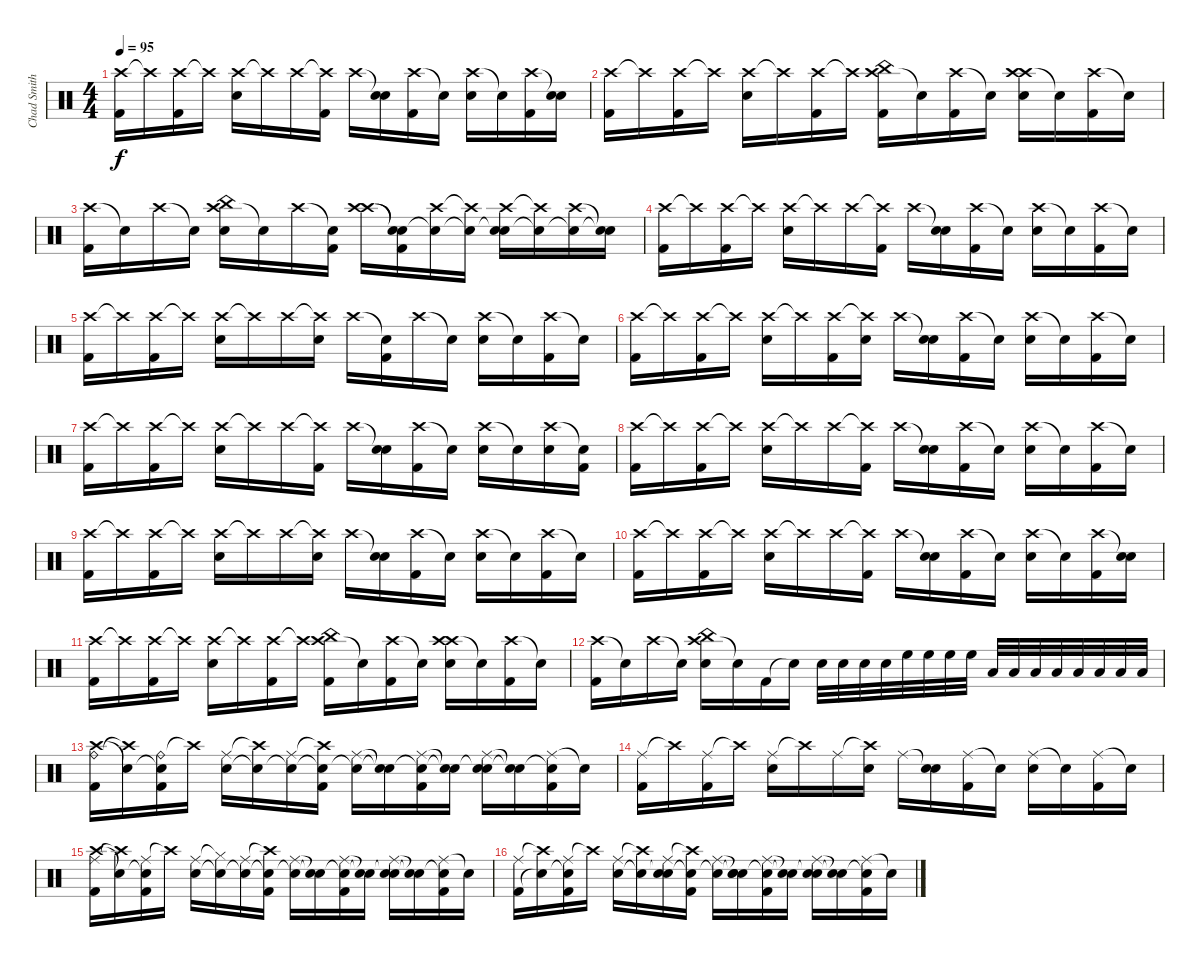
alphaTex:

\track ("Chad Smith" "Chad Smith") {instrument percussion}
\staff {score}
\articulation defaults
\ts (4 4)
\tempo 95
\clef neutral
\ks c
("Crash high (hit)" "Kick (hit) 2").16{dy f} "Crash high (hit)"{t}.16 ("Crash high (hit)" "Kick (hit) 2").16 "Crash high (hit)"{t}.16 ("Crash high (hit)" "Snare (hit) 2").16 "Crash high (hit)"{t}.16 "Crash high (hit)".16 ("Crash high (hit)"{t} "Kick (hit) 2").16 "Crash high (hit)".16 ("Snare (hit)"{t} "Snare (hit) 2").16 ("Crash high (hit)" "Kick (hit) 2").16 "Snare (hit)"{t}.16 ("Crash high (hit)" "Snare (hit) 2").16 "Snare (hit)"{t}.16 ("Crash high (hit)" "Kick (hit) 2").16 ("Snare (hit)"{t} "Snare (hit) 2").16 |
("Crash high (hit)" "Kick (hit) 2").16 "Crash high (hit)"{t}.16 ("Crash high (hit)" "Kick (hit) 2").16 "Crash high (hit)"{t}.16 ("Crash high (hit)" "Snare (hit) 2").16 "Crash high (hit)"{t}.16 ("Crash high (hit)" "Kick (hit) 2").16 "Crash high (hit)"{t}.16 ("Crash high (hit)" "China (hit)" "Kick (hit) 2").16 "Snare (hit)"{t}.16 ("Crash high (hit)" "Kick (hit) 2").16 "Snare (hit)"{t}.16 ("Crash high (hit)" "Crash high (hit)" "Snare (hit) 2").16 "Snare (hit)"{t}.16 ("Crash high (hit)" "Kick (hit) 2").16 "Snare (hit)"{t}.16 |
("Crash high (hit)" "Kick (hit) 2").16 "Snare (hit)"{t}.16 "Crash high (hit)".16 "Snare (hit)"{t}.16 ("Crash high (hit)" "China (hit)" "Snare (hit) 2").16 "Snare (hit)"{t}.16 "Crash high (hit)".16 ("Snare (hit)"{t} "Kick (hit) 2").16 ("Crash high (hit)" "Crash high (hit)").16 ("Snare (hit)"{t} "Snare (hit)"{t} "Kick (hit) 2").16 ("Crash high (hit)" "Snare (hit)"{t}).16 ("Crash high (hit)"{t} "Snare (hit)"{t}).16 ("Crash high (hit)" "Snare (hit)"{t} "Snare (hit) 2").16 ("Crash high (hit)"{t} "Snare (hit)"{t}).16 ("Crash high (hit)" "Snare (hit)"{t}).16 ("Snare (hit)"{t} "Snare (hit)"{t}).16 |
("Crash high (hit)" "Kick (hit) 2").16 "Crash high (hit)"{t}.16 ("Crash high (hit)" "Kick (hit) 2").16 "Crash high (hit)"{t}.16 ("Crash high (hit)" "Snare (hit) 2").16 "Crash high (hit)"{t}.16 "Crash high (hit)".16 ("Crash high (hit)"{t} "Kick (hit) 2").16 "Crash high (hit)".16 ("Snare (hit)"{t} "Snare (hit) 2").16 ("Crash high (hit)" "Kick (hit) 2").16 "Snare (hit)"{t}.16 ("Crash high (hit)" "Snare (hit) 2").16 "Snare (hit)"{t}.16 ("Crash high (hit)" "Kick (hit) 2").16 "Snare (hit)"{t}.16 |
("Crash high (hit)" "Kick (hit) 2").16 "Crash high (hit)"{t}.16 ("Crash high (hit)" "Kick (hit) 2").16 "Crash high (hit)"{t}.16 ("Crash high (hit)" "Snare (hit) 2").16 "Crash high (hit)"{t}.16 "Crash high (hit)".16 ("Crash high (hit)"{t} "Snare (hit) 2").16 "Crash high (hit)".16 ("Snare (hit)"{t} "Kick (hit) 2").16 "Crash high (hit)".16 "Snare (hit)"{t}.16 ("Crash high (hit)" "Snare (hit) 2").16 "Snare (hit)"{t}.16 ("Crash high (hit)" "Kick (hit) 2").16 "Snare (hit)"{t}.16 |
("Crash high (hit)" "Kick (hit) 2").16 "Crash high (hit)"{t}.16 ("Crash high (hit)" "Kick (hit) 2").16 "Crash high (hit)"{t}.16 ("Crash high (hit)" "Snare (hit) 2").16 "Crash high (hit)"{t}.16 ("Crash high (hit)" "Kick (hit) 2").16 ("Crash high (hit)"{t} "Snare (hit) 2").16 "Crash high (hit)".16 ("Snare (hit)"{t} "Snare (hit) 2").16 ("Crash high (hit)" "Kick (hit) 2").16 "Snare (hit)"{t}.16 ("Crash high (hit)" "Snare (hit) 2").16 "Snare (hit)"{t}.16 ("Crash high (hit)" "Kick (hit) 2").16 "Snare (hit)"{t}.16 |
("Crash high (hit)" "Kick (hit) 2").16 "Crash high (hit)"{t}.16 ("Crash high (hit)" "Kick (hit) 2").16 "Crash high (hit)"{t}.16 ("Crash high (hit)" "Snare (hit) 2").16 "Crash high (hit)"{t}.16 "Crash high (hit)".16 ("Crash high (hit)"{t} "Kick (hit) 2").16 "Crash high (hit)".16 ("Snare (hit)"{t} "Snare (hit) 2").16 ("Crash high (hit)" "Kick (hit) 2").16 "Snare (hit)"{t}.16 ("Crash high (hit)" "Snare (hit) 2").16 "Snare (hit)"{t}.16 ("Crash high (hit)" "Snare (hit) 2").16 ("Snare (hit)"{t} "Kick (hit) 2").16 |
("Crash high (hit)" "Kick (hit) 2").16 "Crash high (hit)"{t}.16 ("Crash high (hit)" "Kick (hit) 2").16 "Crash high (hit)"{t}.16 ("Crash high (hit)" "Snare (hit) 2").16 "Crash high (hit)"{t}.16 "Crash high (hit)".16 ("Crash high (hit)"{t} "Kick (hit) 2").16 "Crash high (hit)".16 ("Snare (hit)"{t} "Snare (hit) 2").16 ("Crash high (hit)" "Kick (hit) 2").16 "Snare (hit)"{t}.16 ("Crash high (hit)" "Snare (hit) 2").16 "Snare (hit)"{t}.16 ("Crash high (hit)" "Kick (hit) 2").16 "Snare (hit)"{t}.16 |
("Crash high (hit)" "Kick (hit) 2").16 "Crash high (hit)"{t}.16 ("Crash high (hit)" "Kick (hit) 2").16 "Crash high (hit)"{t}.16 ("Crash high (hit)" "Snare (hit) 2").16 "Crash high (hit)"{t}.16 "Crash high (hit)".16 ("Crash high (hit)"{t} "Snare (hit) 2").16 "Crash high (hit)".16 ("Snare (hit)"{t} "Snare (hit) 2").16 ("Crash high (hit)" "Kick (hit) 2").16 "Snare (hit)"{t}.16 ("Crash high (hit)" "Snare (hit) 2").16 "Snare (hit)"{t}.16 ("Crash high (hit)" "Kick (hit) 2").16 "Snare (hit)"{t}.16 |
("Crash high (hit)" "Kick (hit) 2").16 "Crash high (hit)"{t}.16 ("Crash high (hit)" "Kick (hit) 2").16 "Crash high (hit)"{t}.16 ("Crash high (hit)" "Snare (hit) 2").16 "Crash high (hit)"{t}.16 "Crash high (hit)".16 ("Crash high (hit)"{t} "Kick (hit) 2").16 "Crash high (hit)".16 ("Snare (hit)"{t} "Snare (hit) 2").16 ("Crash high (hit)" "Kick (hit) 2").16 "Snare (hit)"{t}.16 ("Crash high (hit)" "Snare (hit) 2").16 "Snare (hit)"{t}.16 ("Crash high (hit)" "Kick (hit) 2").16 ("Snare (hit)"{t} "Snare (hit) 2").16 |
("Crash high (hit)" "Kick (hit) 2").16 "Crash high (hit)"{t}.16 ("Crash high (hit)" "Kick (hit) 2").16 "Crash high (hit)"{t}.16 ("Crash high (hit)" "Snare (hit) 2").16 "Crash high (hit)"{t}.16 ("Crash high (hit)" "Kick (hit) 2").16 "Crash high (hit)"{t}.16 ("Crash high (hit)" "China (hit)" "Kick (hit) 2").16 "Snare (hit)"{t}.16 ("Crash high (hit)" "Kick (hit) 2").16 "Snare (hit)"{t}.16 ("Crash high (hit)" "Crash high (hit)" "Snare (hit) 2").16 "Snare (hit)"{t}.16 ("Crash high (hit)" "Kick (hit) 2").16 "Snare (hit)"{t}.16 |
("Crash high (hit)" "Kick (hit) 2").16 "Snare (hit)"{t}.16 "Crash high (hit)".16 "Snare (hit)"{t}.16 ("Crash high (hit)" "China (hit)" "Snare (hit) 2").16 "Snare (hit)"{t}.16 "Kick (hit) 2".16 "Snare (hit)"{t}.16 "Snare (hit) 2".32 "Snare (hit) 2".32 "Snare (hit) 2".32 "Snare (hit) 2".32 "High Floor Tom (hit)".32 "High Floor Tom (hit)".32 "High Floor Tom (hit)".32 "High Floor Tom (hit)".32 "Low Tom (hit)".32 "Low Tom (hit)".32 "Low Tom (hit)".32 "Low Tom (hit)".32 "Low Floor Tom (hit)".32 "Low Floor Tom (hit)".32 "Low Floor Tom (hit)".32 "Low Floor Tom (hit)".32 |
("Ride (bell)" "Crash high (hit)" "Kick (hit) 2").16 ("Crash high (hit)"{t} "Snare (hit)"{t}).16 ("Ride (bell)" "Snare (hit)"{t} "Kick (hit) 2").16 "Crash high (hit)"{t}.16 ("Ride (middle)" "Snare (hit) 2").16 ("Crash high (hit)"{t} "Snare (hit)"{t}).16 ("Ride (middle)" "Snare (hit)"{t}).16 ("Crash high (hit)"{t} "Snare (hit)"{t} "Kick (hit) 2").16 ("Ride (middle)" "Snare (hit)"{t}).16 ("Snare (hit)"{t} "Snare (hit)"{t}).16 ("Ride (middle)" "Snare (hit)"{t} "Kick (hit) 2").16 ("Snare (hit)"{t} "Snare (hit)"{t}).16 ("Ride (middle)" "Snare (hit)"{t} "Snare (hit) 2").16 ("Snare (hit)"{t} "Snare (hit)"{t}).16 ("Ride (middle)" "Snare (hit)"{t} "Kick (hit) 2").16 "Snare (hit)"{t}.16 |
("Ride (middle)" "Kick (hit) 2").16 "Crash high (hit)"{t}.16 ("Ride (middle)" "Kick (hit) 2").16 "Crash high (hit)"{t}.16 ("Ride (middle)" "Snare (hit) 2").16 "Crash high (hit)"{t}.16 "Ride (middle)".16 ("Crash high (hit)"{t} "Snare (hit) 2").16 "Ride (middle)".16 ("Snare (hit)"{t} "Snare (hit) 2").16 ("Ride (middle)" "Kick (hit) 2").16 "Snare (hit)"{t}.16 ("Ride (middle)" "Snare (hit) 2").16 "Snare (hit)"{t}.16 ("Ride (middle)" "Kick (hit) 2").16 "Snare (hit)"{t}.16 |
("Ride (middle)" "Crash high (hit)" "Kick (hit) 2").16 ("Crash high (hit)"{t} "Snare (hit)"{t}).16 ("Ride (middle)" "Snare (hit)"{t} "Kick (hit) 2").16 "Crash high (hit)"{t}.16 ("Ride (middle)" "Snare (hit) 2").16 ("Hi-Hat (closed)"{t} "Snare (hit)"{t}).16 ("Ride (middle)" "Snare (hit)"{t}).16 ("Crash high (hit)"{t} "Snare (hit)"{t} "Kick (hit) 2").16 ("Ride (middle)" "Snare (hit)"{t}).16 ("Snare (hit)"{t} "Snare (hit)"{t}).16 ("Ride (middle)" "Snare (hit)"{t} "Kick (hit) 2").16 ("Snare (hit)"{t} "Snare (hit)"{t}).16 ("Ride (middle)" "Snare (hit)"{t} "Snare (hit) 2").16 ("Snare (hit)"{t} "Snare (hit)"{t}).16 ("Ride (middle)" "Snare (hit)"{t} "Kick (hit) 2").16 "Snare (hit)"{t}.16 |
("Ride (middle)" "Kick (hit) 2").16 ("Crash high (hit)"{t} "Snare (hit)"{t}).16 ("Ride (middle)" "Snare (hit)"{t} "Kick (hit) 2").16 "Crash high (hit)"{t}.16 ("Ride (middle)" "Snare (hit) 2").16 ("Crash high (hit)"{t} "Snare (hit)"{t}).16 ("Ride (middle)" "Snare (hit)"{t} "Snare (hit) 2").16 ("Crash high (hit)"{t} "Snare (hit)"{t} "Kick (hit) 2").16 ("Ride (middle)" "Snare (hit)"{t}).16 ("Snare (hit)"{t} "Snare (hit)"{t} "Snare (hit) 2").16 ("Ride (middle)" "Snare (hit)"{t} "Kick (hit) 2").16 ("Snare (hit)"{t} "Snare (hit)"{t}).16 ("Ride (middle)" "Snare (hit)"{t} "Snare (hit) 2").16 ("Snare (hit)"{t} "Snare (hit)"{t}).16 ("Ride (middle)" "Snare (hit)"{t} "Kick (hit) 2").16 "Snare (hit)"{t}.16
